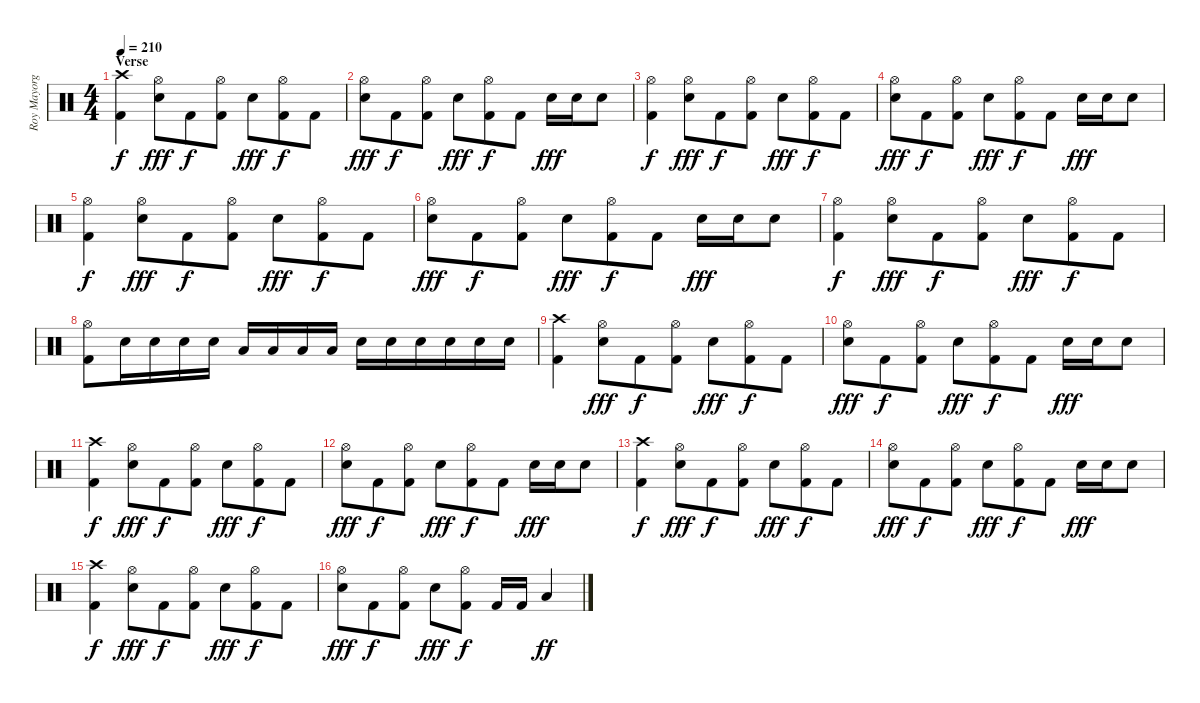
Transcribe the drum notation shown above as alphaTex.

\track ("Roy Mayorga" "Roy Mayorg") {instrument percussion}
\staff {score}
\articulation defaults
\ts (4 4)
\section ("" "Verse")
\tempo 210
\clef neutral
\ks c
("Crash high (hit)" "Kick (hit) 2").4{dy f} ("Hi-Hat (open)" "Electric Snare (hit)").8{dy fff} "Kick (hit) 2".8{dy f beam merge} ("Hi-Hat (open)" "Kick (hit) 2").8{beam split} "Electric Snare (hit)".8{dy fff beam merge} ("Hi-Hat (open)" "Kick (hit) 2").8{dy f} "Kick (hit) 2".8 |
("Hi-Hat (open)" "Electric Snare (hit)").8{dy fff} "Kick (hit) 2".8{dy f beam merge} ("Hi-Hat (open)" "Kick (hit) 2").8{beam split} "Electric Snare (hit)".8{dy fff beam merge} ("Hi-Hat (open)" "Kick (hit) 2").8{dy f} "Kick (hit) 2".8{beam split} "Electric Snare (hit)".16{dy fff} "Electric Snare (hit)".16 "Electric Snare (hit)".8 |
("Hi-Hat (open)" "Kick (hit) 2").4{dy f} ("Hi-Hat (open)" "Electric Snare (hit)").8{dy fff} "Kick (hit) 2".8{dy f beam merge} ("Hi-Hat (open)" "Kick (hit) 2").8{beam split} "Electric Snare (hit)".8{dy fff beam merge} ("Hi-Hat (open)" "Kick (hit) 2").8{dy f} "Kick (hit) 2".8 |
("Hi-Hat (open)" "Electric Snare (hit)").8{dy fff} "Kick (hit) 2".8{dy f beam merge} ("Hi-Hat (open)" "Kick (hit) 2").8{beam split} "Electric Snare (hit)".8{dy fff beam merge} ("Hi-Hat (open)" "Kick (hit) 2").8{dy f} "Kick (hit) 2".8 "Electric Snare (hit)".16{dy fff} "Electric Snare (hit)".16 "Electric Snare (hit)".8 |
("Hi-Hat (open)" "Kick (hit) 2").4{dy f} ("Hi-Hat (open)" "Electric Snare (hit)").8{dy fff} "Kick (hit) 2".8{dy f beam merge} ("Hi-Hat (open)" "Kick (hit) 2").8{beam split} "Electric Snare (hit)".8{dy fff beam merge} ("Hi-Hat (open)" "Kick (hit) 2").8{dy f} "Kick (hit) 2".8 |
("Hi-Hat (open)" "Electric Snare (hit)").8{dy fff} "Kick (hit) 2".8{dy f beam merge} ("Hi-Hat (open)" "Kick (hit) 2").8{beam split} "Electric Snare (hit)".8{dy fff beam merge} ("Hi-Hat (open)" "Kick (hit) 2").8{dy f} "Kick (hit) 2".8 "Electric Snare (hit)".16{dy fff} "Electric Snare (hit)".16 "Electric Snare (hit)".8 |
("Hi-Hat (open)" "Kick (hit) 2").4{dy f} ("Hi-Hat (open)" "Electric Snare (hit)").8{dy fff} "Kick (hit) 2".8{dy f beam merge} ("Hi-Hat (open)" "Kick (hit) 2").8{beam split} "Electric Snare (hit)".8{dy fff beam merge} ("Hi-Hat (open)" "Kick (hit) 2").8{dy f} "Kick (hit) 2".8 |
("Hi-Hat (open)" "Kick (hit) 2").8 "Electric Snare (hit)".16 "Electric Snare (hit)".16{beam merge} "Electric Snare (hit)".16 "Electric Snare (hit)".16{beam split} "Low Tom (hit)".16 "Low Tom (hit)".16{beam merge} "Low Tom (hit)".16 "Low Tom (hit)".16{beam split} "Electric Snare (hit)".16 "Electric Snare (hit)".16{beam merge} "Electric Snare (hit)".16 "Electric Snare (hit)".16 "Electric Snare (hit)".16 "Electric Snare (hit)".16 |
("Crash high (hit)" "Kick (hit) 2").4 ("Hi-Hat (open)" "Electric Snare (hit)").8{dy fff} "Kick (hit) 2".8{dy f beam merge} ("Hi-Hat (open)" "Kick (hit) 2").8{beam split} "Electric Snare (hit)".8{dy fff beam merge} ("Hi-Hat (open)" "Kick (hit) 2").8{dy f} "Kick (hit) 2".8 |
("Hi-Hat (open)" "Electric Snare (hit)").8{dy fff} "Kick (hit) 2".8{dy f beam merge} ("Hi-Hat (open)" "Kick (hit) 2").8{beam split} "Electric Snare (hit)".8{dy fff beam merge} ("Hi-Hat (open)" "Kick (hit) 2").8{dy f} "Kick (hit) 2".8 "Electric Snare (hit)".16{dy fff} "Electric Snare (hit)".16 "Electric Snare (hit)".8 |
("Crash high (hit)" "Kick (hit) 2").4{dy f} ("Hi-Hat (open)" "Electric Snare (hit)").8{dy fff} "Kick (hit) 2".8{dy f beam merge} ("Hi-Hat (open)" "Kick (hit) 2").8{beam split} "Electric Snare (hit)".8{dy fff beam merge} ("Hi-Hat (open)" "Kick (hit) 2").8{dy f} "Kick (hit) 2".8 |
("Hi-Hat (open)" "Electric Snare (hit)").8{dy fff} "Kick (hit) 2".8{dy f beam merge} ("Hi-Hat (open)" "Kick (hit) 2").8{beam split} "Electric Snare (hit)".8{dy fff beam merge} ("Hi-Hat (open)" "Kick (hit) 2").8{dy f} "Kick (hit) 2".8 "Electric Snare (hit)".16{dy fff} "Electric Snare (hit)".16 "Electric Snare (hit)".8 |
("Crash high (hit)" "Kick (hit) 2").4{dy f} ("Hi-Hat (open)" "Electric Snare (hit)").8{dy fff} "Kick (hit) 2".8{dy f beam merge} ("Hi-Hat (open)" "Kick (hit) 2").8{beam split} "Electric Snare (hit)".8{dy fff beam merge} ("Hi-Hat (open)" "Kick (hit) 2").8{dy f} "Kick (hit) 2".8 |
("Hi-Hat (open)" "Electric Snare (hit)").8{dy fff} "Kick (hit) 2".8{dy f beam merge} ("Hi-Hat (open)" "Kick (hit) 2").8{beam split} "Electric Snare (hit)".8{dy fff beam merge} ("Hi-Hat (open)" "Kick (hit) 2").8{dy f} "Kick (hit) 2".8 "Electric Snare (hit)".16{dy fff} "Electric Snare (hit)".16 "Electric Snare (hit)".8 |
("Crash high (hit)" "Kick (hit) 2").4{dy f} ("Hi-Hat (open)" "Electric Snare (hit)").8{dy fff} "Kick (hit) 2".8{dy f beam merge} ("Hi-Hat (open)" "Kick (hit) 2").8{beam split} "Electric Snare (hit)".8{dy fff beam merge} ("Hi-Hat (open)" "Kick (hit) 2").8{dy f} "Kick (hit) 2".8 |
("Hi-Hat (open)" "Electric Snare (hit)").8{dy fff} "Kick (hit) 2".8{dy f beam merge} ("Hi-Hat (open)" "Kick (hit) 2").8{beam split} "Electric Snare (hit)".8{dy fff beam merge} ("Hi-Hat (open)" "Kick (hit) 2").8{dy f beam split} "Kick (hit) 2".16 "Kick (hit) 2".16 "Low Tom (hit)".4{dy ff}
